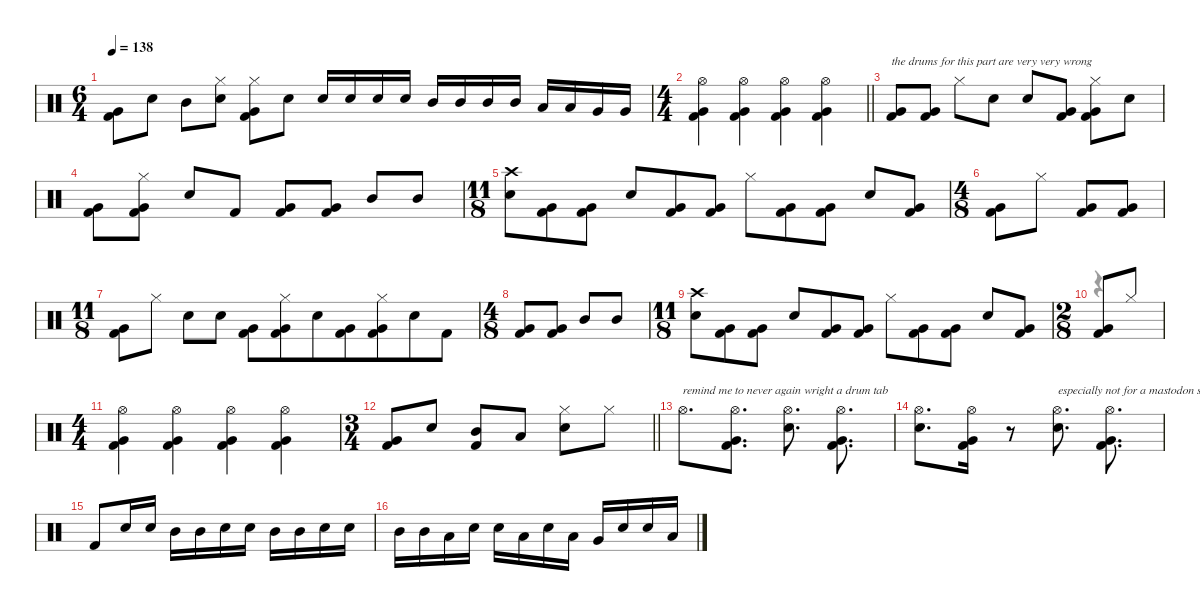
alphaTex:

\defaultSystemsLayout 4
\hideDynamics
\bracketExtendMode nobrackets
\singleTrackTrackNamePolicy hidden
\multiTrackTrackNamePolicy hidden
\otherSystemsTrackNameOrientation horizontal
\track ("Drums" "drm.") {instrument percussion}
\staff {score}
\articulation defaults
\voice
\ts (6 4)
\tempo 138
\clef neutral
\ks c
("Very Low Tom (hit)" "Kick (hit) 2").8{dy ff beam Down} "Snare (hit) 2".8{beam Down} "Mid Tom (hit)".8{beam Down} ("Hi-Hat (closed)" "Snare (hit) 2").8{beam Down} ("Hi-Hat (closed)" "Very Low Tom (hit)" "Kick (hit) 2").8{beam Down} "Snare (hit) 2".8{beam Down} "Snare (hit) 2".16{beam Up} "Snare (hit) 2".16{beam Up} "Snare (hit) 2".16{beam Up} "Snare (hit) 2".16{beam Up} "Mid Tom (hit)".16{beam Up} "Mid Tom (hit)".16{beam Up} "Mid Tom (hit)".16{beam Up} "Mid Tom (hit)".16{beam Up} "Low Tom (hit)".16{beam Up} "Low Tom (hit)".16{beam Up} "Very Low Tom (hit)".16{beam Up} "Very Low Tom (hit)".16{beam Up} |
\ts (4 4)
\beaming (8 2 2 2 2)
\barLineRight lightlight
("Hi-Hat (open)" "Very Low Tom (hit)" "Kick (hit) 2").4{beam Down} ("Hi-Hat (open)" "Very Low Tom (hit)" "Kick (hit) 2").4{beam Down} ("Hi-Hat (open)" "Very Low Tom (hit)" "Kick (hit) 2").4{beam Down} ("Hi-Hat (open)" "Very Low Tom (hit)" "Kick (hit) 2").4{beam Down} |
("Very Low Tom (hit)" "Kick (hit) 2").8{txt "the drums for this part are very very wrong" dy f beam Up} ("Very Low Tom (hit)" "Kick (hit) 2").8{beam Up} "Hi-Hat (closed)".8{beam Down} "Snare (hit) 2".8{beam Down} "Snare (hit) 2".8{beam Up} ("Very Low Tom (hit)" "Kick (hit) 2").8{beam Up} ("Hi-Hat (closed)" "Very Low Tom (hit)" "Kick (hit) 2").8{beam Down} "Snare (hit) 2".8{beam Down} |
("Very Low Tom (hit)" "Kick (hit) 2").8{beam Down} ("Hi-Hat (closed)" "Very Low Tom (hit)" "Kick (hit) 2").8{beam Down} "Snare (hit) 2".8{beam Up} "Kick (hit) 2".8{beam Up} ("Very Low Tom (hit)" "Kick (hit) 2").8{beam Up} ("Very Low Tom (hit)" "Kick (hit) 2").8{beam Up} "Mid Tom (hit)".8{beam Up} "Mid Tom (hit)".8{beam Up} |
\ts (11 8)
\beaming (8 3 3 3 2)
("Crash high (hit)" "Snare (hit) 2").8{beam Down} ("Very Low Tom (hit)" "Kick (hit) 2").8{beam Down} ("Very Low Tom (hit)" "Kick (hit) 2").8{beam Down} "Snare (hit) 2".8{beam Up} ("Very Low Tom (hit)" "Kick (hit) 2").8{beam Up} ("Very Low Tom (hit)" "Kick (hit) 2").8{beam Up} "Hi-Hat (closed)".8{beam Down} ("Very Low Tom (hit)" "Kick (hit) 2").8{beam Down} ("Very Low Tom (hit)" "Kick (hit) 2").8{beam Down} "Snare (hit) 2".8{beam Up} ("Very Low Tom (hit)" "Kick (hit) 2").8{beam Up} |
\ts (4 8)
\beaming (8 2 2)
("Very Low Tom (hit)" "Kick (hit) 2").8{beam Down} "Hi-Hat (closed)".8{beam Down} ("Very Low Tom (hit)" "Kick (hit) 2").8{beam Up} ("Very Low Tom (hit)" "Kick (hit) 2").8{beam Up} |
\ts (11 8)
\beaming (8 2 2 7)
("Very Low Tom (hit)" "Kick (hit) 2").8{beam Down} "Hi-Hat (closed)".8{beam Down} "Snare (hit) 2".8{beam Down} "Snare (hit) 2".8{beam Down} ("Very Low Tom (hit)" "Kick (hit) 2").8{beam Down} ("Hi-Hat (closed)" "Very Low Tom (hit)" "Kick (hit) 2").8{beam Down} "Snare (hit) 2".8{beam Down} ("Very Low Tom (hit)" "Kick (hit) 2").8{beam Down} ("Hi-Hat (closed)" "Very Low Tom (hit)" "Kick (hit) 2").8{beam Down} "Snare (hit) 2".8{beam Down} "Kick (hit) 2".8{beam Down} |
\ts (4 8)
\beaming (8 2 2)
("Very Low Tom (hit)" "Kick (hit) 2").8{beam Up} ("Very Low Tom (hit)" "Kick (hit) 2").8{beam Up} "Mid Tom (hit)".8{beam Up} "Mid Tom (hit)".8{beam Up} |
\ts (11 8)
\beaming (8 3 3 3 2)
("Crash high (hit)" "Snare (hit) 2").8{beam Down} ("Very Low Tom (hit)" "Kick (hit) 2").8{beam Down} ("Very Low Tom (hit)" "Kick (hit) 2").8{beam Down} "Snare (hit) 2".8{beam Up} ("Very Low Tom (hit)" "Kick (hit) 2").8{beam Up} ("Very Low Tom (hit)" "Kick (hit) 2").8{beam Up} "Hi-Hat (closed)".8{beam Down} ("Very Low Tom (hit)" "Kick (hit) 2").8{beam Down} ("Very Low Tom (hit)" "Kick (hit) 2").8{beam Down} "Snare (hit) 2".8{beam Up} ("Very Low Tom (hit)" "Kick (hit) 2").8{beam Up} |
\ts (2 8)
\beaming (8 2)
("Very Low Tom (hit)" "Kick (hit) 2").8{beam Up} "Hi-Hat (closed)".8{beam Up} |
\ts (4 4)
\beaming (8 2 2 2 2)
("Hi-Hat (open)" "Very Low Tom (hit)" "Kick (hit) 2").4{dy ff beam Down} ("Hi-Hat (open)" "Very Low Tom (hit)" "Kick (hit) 2").4{beam Down} ("Hi-Hat (open)" "Very Low Tom (hit)" "Kick (hit) 2").4{beam Down} ("Hi-Hat (open)" "Very Low Tom (hit)" "Kick (hit) 2").4{beam Down} |
\ts (3 4)
\beaming (8 2 2 2)
\barLineRight lightlight
("Very Low Tom (hit)" "Kick (hit) 2").8{dy f beam Up} "Snare (hit) 2".8{beam Up} ("Mid Tom (hit)" "Kick (hit) 2").8{beam Up} "Low Tom (hit)".8{beam Up} ("Hi-Hat (closed)" "Snare (hit) 2").8{beam Down} "Hi-Hat (closed)".8{beam Down} |
"Hi-Hat (open)".8{d txt "remind me to never again wright a drum tab" dy mp beam Down} ("Hi-Hat (open)" "Very Low Tom (hit)" "Kick (hit) 2").8{d beam Down} ("Hi-Hat (open)" "Snare (hit) 2").8{d beam Down} ("Hi-Hat (open)" "Very Low Tom (hit)" "Kick (hit) 2").8{d beam Down} |
("Hi-Hat (open)" "Snare (hit) 2").8{d beam Down} ("Hi-Hat (open)" "Very Low Tom (hit)" "Kick (hit) 2").16{beam Down} r.8{beam Down} ("Hi-Hat (open)" "Snare (hit) 2").8{d txt "especially not for a mastodon song" beam Down} ("Hi-Hat (open)" "Very Low Tom (hit)" "Kick (hit) 2").8{d beam Down} |
"Kick (hit) 2".8{beam Up} "Snare (hit) 2".16{dy ff beam Up} "Snare (hit) 2".16{beam Up} "Mid Tom (hit)".16{beam Down} "Mid Tom (hit)".16{beam Down} "Snare (hit) 2".16{beam Down} "Snare (hit) 2".16{beam Down} "Mid Tom (hit)".16{beam Down} "Mid Tom (hit)".16{beam Down} "Snare (hit) 2".16{beam Down} "Snare (hit) 2".16{beam Down} |
"Mid Tom (hit)".16{beam Down} "Mid Tom (hit)".16{beam Down} "Low Tom (hit)".16{beam Down} "Snare (hit) 2".16{beam Down} "Snare (hit) 2".16{beam Down} "Low Tom (hit)".16{beam Down} "Snare (hit) 2".16{beam Down} "Low Tom (hit)".16{beam Down} "Very Low Tom (hit)".16{beam Up} "Snare (hit) 2".16{beam Up} "Snare (hit) 2".16{beam Up} "Low Tom (hit)".16{beam Up}
\voice
\clef neutral
\ottava regular
\simile none
\ks c
|
\barLineRight lightlight
|
|
|
|
|
|
|
|
r.4{dy mf beam Down} |
|
\barLineRight lightlight
|
|
|
|
